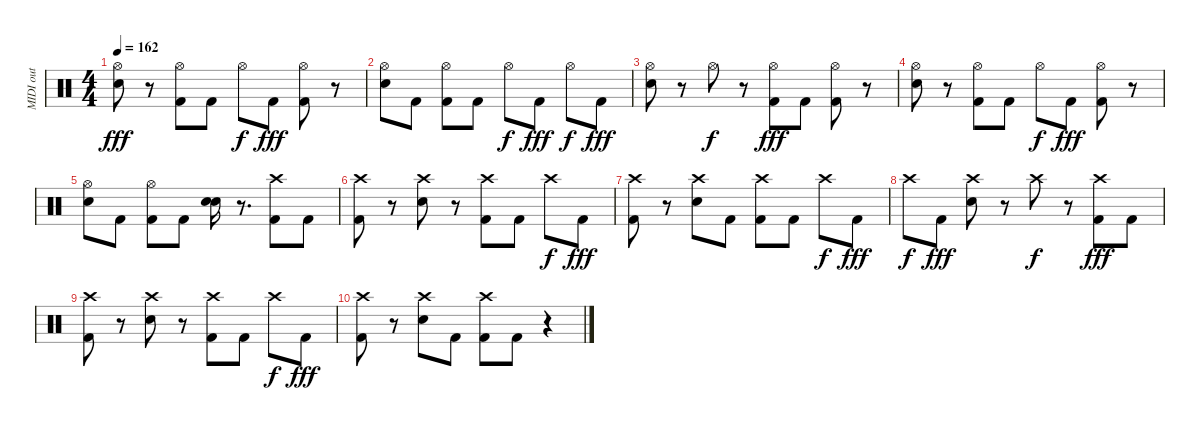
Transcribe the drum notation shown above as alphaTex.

\track ("MIDI out" "MIDI out") {instrument percussion}
\staff {score}
\articulation defaults
\ts (4 4)
\tempo 162
\clef neutral
\ks c
("Hi-Hat (open)" "Electric Snare (hit)").8{dy fff} r.8 ("Kick (hit) 2" "Hi-Hat (open)").8 "Kick (hit) 2".8 "Hi-Hat (open)".8{dy f} "Kick (hit) 2".8{dy fff} ("Hi-Hat (open)" "Kick (hit) 2").8 r.8 |
("Hi-Hat (open)" "Electric Snare (hit)").8 "Kick (hit) 2".8 ("Kick (hit) 2" "Hi-Hat (open)").8 "Kick (hit) 2".8 "Hi-Hat (open)".8{dy f} "Kick (hit) 2".8{dy fff} "Hi-Hat (open)".8{dy f} "Kick (hit) 2".8{dy fff} |
("Electric Snare (hit)" "Hi-Hat (open)").8 r.8 "Hi-Hat (open)".8{dy f} r.8 ("Hi-Hat (open)" "Kick (hit) 2").8{dy fff} "Kick (hit) 2".8 ("Kick (hit) 2" "Hi-Hat (open)").8 r.8 |
("Electric Snare (hit)" "Hi-Hat (open)").8 r.8 ("Hi-Hat (open)" "Kick (hit) 2").8 "Kick (hit) 2".8 "Hi-Hat (open)".8{dy f} "Kick (hit) 2".8{dy fff} ("Kick (hit) 2" "Hi-Hat (open)").8 r.8 |
("Electric Snare (hit)" "Hi-Hat (open)").8 "Kick (hit) 2".8 ("Hi-Hat (open)" "Kick (hit) 2").8 "Kick (hit) 2".8 ("Snare (hit) 2" "Electric Snare (hit)").16 r.8{d} ("Kick (hit) 2" "Crash high (hit)").8 "Kick (hit) 2".8 |
("Crash high (hit)" "Kick (hit) 2").8 r.8 ("Crash high (hit)" "Electric Snare (hit)").8 r.8 ("Kick (hit) 2" "Crash high (hit)").8 "Kick (hit) 2".8 "Crash high (hit)".8{dy f} "Kick (hit) 2".8{dy fff} |
("Crash high (hit)" "Kick (hit) 2").8 r.8 ("Crash high (hit)" "Electric Snare (hit)").8 "Kick (hit) 2".8 ("Kick (hit) 2" "Crash high (hit)").8 "Kick (hit) 2".8 "Crash high (hit)".8{dy f} "Kick (hit) 2".8{dy fff} |
"Crash high (hit)".8{dy f} "Kick (hit) 2".8{dy fff} ("Electric Snare (hit)" "Crash high (hit)").8 r.8 "Crash high (hit)".8{dy f} r.8 ("Crash high (hit)" "Kick (hit) 2").8{dy fff} "Kick (hit) 2".8 |
("Kick (hit) 2" "Crash high (hit)").8 r.8 ("Electric Snare (hit)" "Crash high (hit)").8 r.8 ("Crash high (hit)" "Kick (hit) 2").8 "Kick (hit) 2".8 "Crash high (hit)".8{dy f} "Kick (hit) 2".8{dy fff} |
("Kick (hit) 2" "Crash high (hit)").8 r.8 ("Electric Snare (hit)" "Crash high (hit)").8 "Kick (hit) 2".8 ("Crash high (hit)" "Kick (hit) 2").8 "Kick (hit) 2".8 r.4
